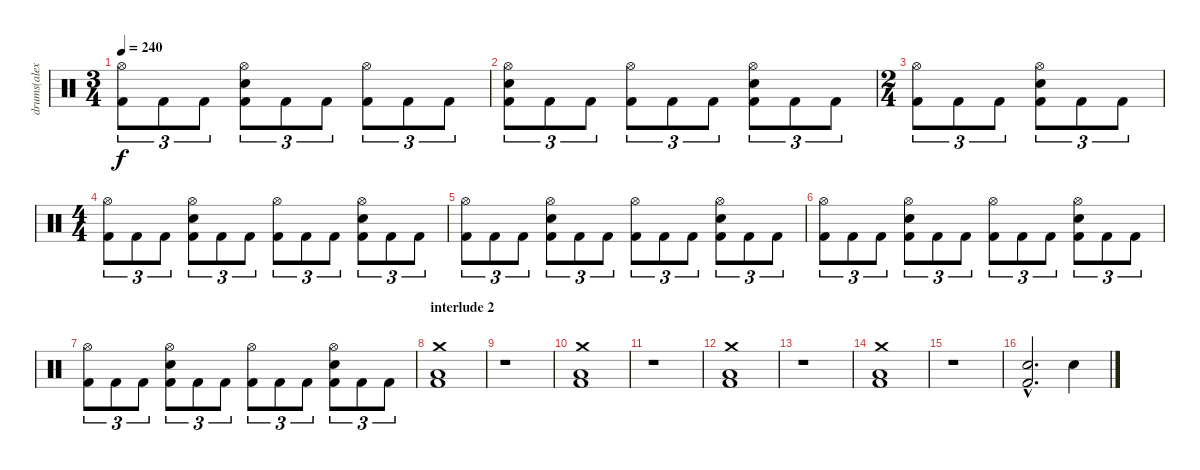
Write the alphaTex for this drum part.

\track ("drums(alex holzshwart)" "drums(alex") {instrument percussion}
\staff {score}
\articulation defaults
\ts (3 4)
\tempo 240
\clef neutral
\ks c
("Hi-Hat (open)" "Kick (hit) 2").8{tu (3 2) dy f} "Kick (hit) 2".8{tu (3 2)} "Kick (hit) 2".8{tu (3 2)} ("Hi-Hat (open)" "Electric Snare (hit)" "Kick (hit) 2").8{tu (3 2)} "Kick (hit) 2".8{tu (3 2)} "Kick (hit) 2".8{tu (3 2)} ("Hi-Hat (open)" "Kick (hit) 2").8{tu (3 2)} "Kick (hit) 2".8{tu (3 2)} "Kick (hit) 2".8{tu (3 2)} |
("Hi-Hat (open)" "Electric Snare (hit)" "Kick (hit) 2").8{tu (3 2)} "Kick (hit) 2".8{tu (3 2)} "Kick (hit) 2".8{tu (3 2)} ("Hi-Hat (open)" "Kick (hit) 2").8{tu (3 2)} "Kick (hit) 2".8{tu (3 2)} "Kick (hit) 2".8{tu (3 2)} ("Hi-Hat (open)" "Electric Snare (hit)" "Kick (hit) 2").8{tu (3 2)} "Kick (hit) 2".8{tu (3 2)} "Kick (hit) 2".8{tu (3 2)} |
\ts (2 4)
("Hi-Hat (open)" "Kick (hit) 2").8{tu (3 2)} "Kick (hit) 2".8{tu (3 2)} "Kick (hit) 2".8{tu (3 2)} ("Hi-Hat (open)" "Electric Snare (hit)" "Kick (hit) 2").8{tu (3 2)} "Kick (hit) 2".8{tu (3 2)} "Kick (hit) 2".8{tu (3 2)} |
\ts (4 4)
("Hi-Hat (open)" "Kick (hit) 2").8{tu (3 2)} "Kick (hit) 2".8{tu (3 2)} "Kick (hit) 2".8{tu (3 2)} ("Hi-Hat (open)" "Electric Snare (hit)" "Kick (hit) 2").8{tu (3 2)} "Kick (hit) 2".8{tu (3 2)} "Kick (hit) 2".8{tu (3 2)} ("Hi-Hat (open)" "Kick (hit) 2").8{tu (3 2)} "Kick (hit) 2".8{tu (3 2)} "Kick (hit) 2".8{tu (3 2)} ("Hi-Hat (open)" "Electric Snare (hit)" "Kick (hit) 2").8{tu (3 2)} "Kick (hit) 2".8{tu (3 2)} "Kick (hit) 2".8{tu (3 2)} |
("Hi-Hat (open)" "Kick (hit) 2").8{tu (3 2)} "Kick (hit) 2".8{tu (3 2)} "Kick (hit) 2".8{tu (3 2)} ("Hi-Hat (open)" "Electric Snare (hit)" "Kick (hit) 2").8{tu (3 2)} "Kick (hit) 2".8{tu (3 2)} "Kick (hit) 2".8{tu (3 2)} ("Hi-Hat (open)" "Kick (hit) 2").8{tu (3 2)} "Kick (hit) 2".8{tu (3 2)} "Kick (hit) 2".8{tu (3 2)} ("Hi-Hat (open)" "Electric Snare (hit)" "Kick (hit) 2").8{tu (3 2)} "Kick (hit) 2".8{tu (3 2)} "Kick (hit) 2".8{tu (3 2)} |
("Hi-Hat (open)" "Kick (hit) 2").8{tu (3 2)} "Kick (hit) 2".8{tu (3 2)} "Kick (hit) 2".8{tu (3 2)} ("Hi-Hat (open)" "Electric Snare (hit)" "Kick (hit) 2").8{tu (3 2)} "Kick (hit) 2".8{tu (3 2)} "Kick (hit) 2".8{tu (3 2)} ("Hi-Hat (open)" "Kick (hit) 2").8{tu (3 2)} "Kick (hit) 2".8{tu (3 2)} "Kick (hit) 2".8{tu (3 2)} ("Hi-Hat (open)" "Electric Snare (hit)" "Kick (hit) 2").8{tu (3 2)} "Kick (hit) 2".8{tu (3 2)} "Kick (hit) 2".8{tu (3 2)} |
("Hi-Hat (open)" "Kick (hit) 2").8{tu (3 2)} "Kick (hit) 2".8{tu (3 2)} "Kick (hit) 2".8{tu (3 2)} ("Hi-Hat (open)" "Electric Snare (hit)" "Kick (hit) 2").8{tu (3 2)} "Kick (hit) 2".8{tu (3 2)} "Kick (hit) 2".8{tu (3 2)} ("Hi-Hat (open)" "Kick (hit) 2").8{tu (3 2)} "Kick (hit) 2".8{tu (3 2)} "Kick (hit) 2".8{tu (3 2)} ("Hi-Hat (open)" "Electric Snare (hit)" "Kick (hit) 2").8{tu (3 2)} "Kick (hit) 2".8{tu (3 2)} "Kick (hit) 2".8{tu (3 2)} |
\section ("" "interlude 2")
("Crash medium (hit)" "Low Floor Tom (hit)" "Kick (hit) 2").1 |
r.1 |
("Crash medium (hit)" "Low Floor Tom (hit)" "Kick (hit) 2").1 |
r.1 |
("Crash medium (hit)" "Low Floor Tom (hit)" "Kick (hit) 2").1 |
r.1 |
("Crash medium (hit)" "Low Floor Tom (hit)" "Kick (hit) 2").1 |
r.1 |
("Electric Snare (hit)"{hac} "Kick (hit) 2"{hac}).2{d} "Electric Snare (hit)".4
